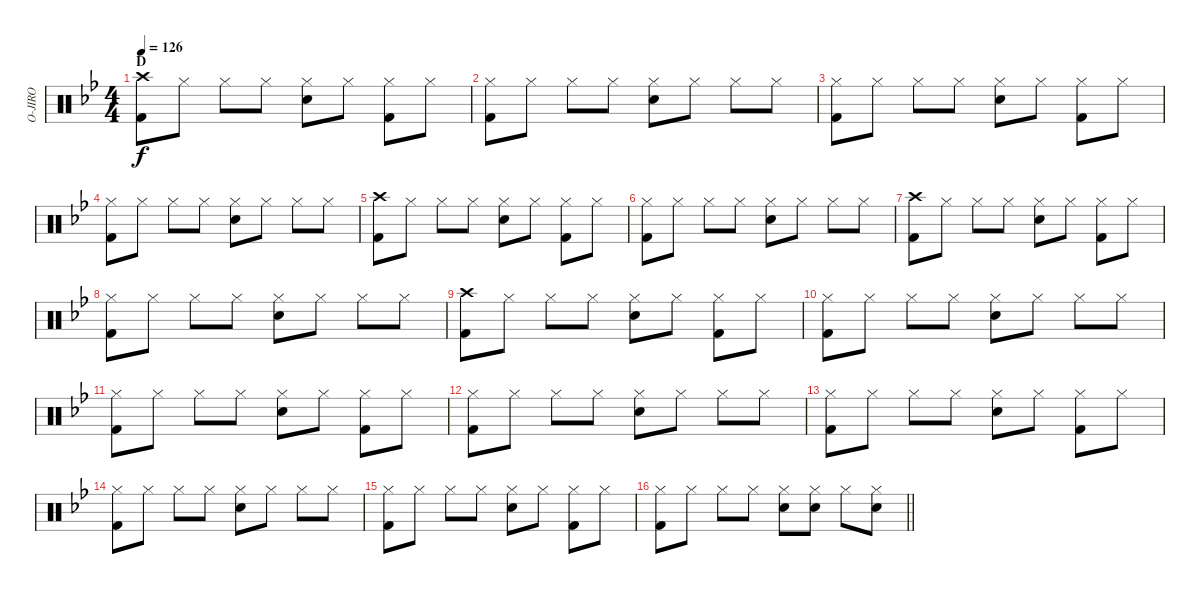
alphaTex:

\track ("O-JIRO" "O-JIRO") {instrument percussion}
\staff {score}
\articulation defaults
\ts (4 4)
\section ("" "D")
\tempo 126
\clef neutral
\ks bb
("Crash high (hit)" "Kick (hit) 2").8{dy f} "Hi-Hat (closed)".8 "Hi-Hat (closed)".8 "Hi-Hat (closed)".8 ("Hi-Hat (closed)" "Snare (hit) 2").8 "Hi-Hat (closed)".8 ("Hi-Hat (closed)" "Kick (hit) 2").8 "Hi-Hat (closed)".8 |
("Hi-Hat (closed)" "Kick (hit) 2").8 "Hi-Hat (closed)".8 "Hi-Hat (closed)".8 "Hi-Hat (closed)".8 ("Hi-Hat (closed)" "Snare (hit) 2").8 "Hi-Hat (closed)".8 "Hi-Hat (closed)".8 "Hi-Hat (closed)".8 |
("Hi-Hat (closed)" "Kick (hit) 2").8 "Hi-Hat (closed)".8 "Hi-Hat (closed)".8 "Hi-Hat (closed)".8 ("Hi-Hat (closed)" "Snare (hit) 2").8 "Hi-Hat (closed)".8 ("Hi-Hat (closed)" "Kick (hit) 2").8 "Hi-Hat (closed)".8 |
("Hi-Hat (closed)" "Kick (hit) 2").8 "Hi-Hat (closed)".8 "Hi-Hat (closed)".8 "Hi-Hat (closed)".8 ("Hi-Hat (closed)" "Snare (hit) 2").8 "Hi-Hat (closed)".8 "Hi-Hat (closed)".8 "Hi-Hat (closed)".8 |
("Crash high (hit)" "Kick (hit) 2").8 "Hi-Hat (closed)".8 "Hi-Hat (closed)".8 "Hi-Hat (closed)".8 ("Hi-Hat (closed)" "Snare (hit) 2").8 "Hi-Hat (closed)".8 ("Hi-Hat (closed)" "Kick (hit) 2").8 "Hi-Hat (closed)".8 |
("Hi-Hat (closed)" "Kick (hit) 2").8 "Hi-Hat (closed)".8 "Hi-Hat (closed)".8 "Hi-Hat (closed)".8 ("Hi-Hat (closed)" "Snare (hit) 2").8 "Hi-Hat (closed)".8 "Hi-Hat (closed)".8 "Hi-Hat (closed)".8 |
("Crash high (hit)" "Kick (hit) 2").8 "Hi-Hat (closed)".8 "Hi-Hat (closed)".8 "Hi-Hat (closed)".8 ("Hi-Hat (closed)" "Snare (hit) 2").8 "Hi-Hat (closed)".8 ("Hi-Hat (closed)" "Kick (hit) 2").8 "Hi-Hat (closed)".8 |
("Hi-Hat (closed)" "Kick (hit) 2").8 "Hi-Hat (closed)".8 "Hi-Hat (closed)".8 "Hi-Hat (closed)".8 ("Hi-Hat (closed)" "Snare (hit) 2").8 "Hi-Hat (closed)".8 "Hi-Hat (closed)".8 "Hi-Hat (closed)".8 |
("Crash high (hit)" "Kick (hit) 2").8 "Hi-Hat (closed)".8 "Hi-Hat (closed)".8 "Hi-Hat (closed)".8 ("Hi-Hat (closed)" "Snare (hit) 2").8 "Hi-Hat (closed)".8 ("Hi-Hat (closed)" "Kick (hit) 2").8 "Hi-Hat (closed)".8 |
("Hi-Hat (closed)" "Kick (hit) 2").8 "Hi-Hat (closed)".8 "Hi-Hat (closed)".8 "Hi-Hat (closed)".8 ("Hi-Hat (closed)" "Snare (hit) 2").8 "Hi-Hat (closed)".8 "Hi-Hat (closed)".8 "Hi-Hat (closed)".8 |
("Hi-Hat (closed)" "Kick (hit) 2").8 "Hi-Hat (closed)".8 "Hi-Hat (closed)".8 "Hi-Hat (closed)".8 ("Hi-Hat (closed)" "Snare (hit) 2").8 "Hi-Hat (closed)".8 ("Hi-Hat (closed)" "Kick (hit) 2").8 "Hi-Hat (closed)".8 |
("Hi-Hat (closed)" "Kick (hit) 2").8 "Hi-Hat (closed)".8 "Hi-Hat (closed)".8 "Hi-Hat (closed)".8 ("Hi-Hat (closed)" "Snare (hit) 2").8 "Hi-Hat (closed)".8 "Hi-Hat (closed)".8 "Hi-Hat (closed)".8 |
("Hi-Hat (closed)" "Kick (hit) 2").8 "Hi-Hat (closed)".8 "Hi-Hat (closed)".8 "Hi-Hat (closed)".8 ("Hi-Hat (closed)" "Snare (hit) 2").8 "Hi-Hat (closed)".8 ("Hi-Hat (closed)" "Kick (hit) 2").8 "Hi-Hat (closed)".8 |
("Hi-Hat (closed)" "Kick (hit) 2").8 "Hi-Hat (closed)".8 "Hi-Hat (closed)".8 "Hi-Hat (closed)".8 ("Hi-Hat (closed)" "Snare (hit) 2").8 "Hi-Hat (closed)".8 "Hi-Hat (closed)".8 "Hi-Hat (closed)".8 |
("Hi-Hat (closed)" "Kick (hit) 2").8 "Hi-Hat (closed)".8 "Hi-Hat (closed)".8 "Hi-Hat (closed)".8 ("Hi-Hat (closed)" "Snare (hit) 2").8 "Hi-Hat (closed)".8 ("Hi-Hat (closed)" "Kick (hit) 2").8 "Hi-Hat (closed)".8 |
\barLineRight lightlight
("Hi-Hat (closed)" "Kick (hit) 2").8 "Hi-Hat (closed)".8 "Hi-Hat (closed)".8 "Hi-Hat (closed)".8 ("Hi-Hat (closed)" "Snare (hit) 2").8 ("Hi-Hat (closed)" "Snare (hit) 2").8 "Hi-Hat (closed)".8 ("Hi-Hat (closed)" "Snare (hit) 2").8
